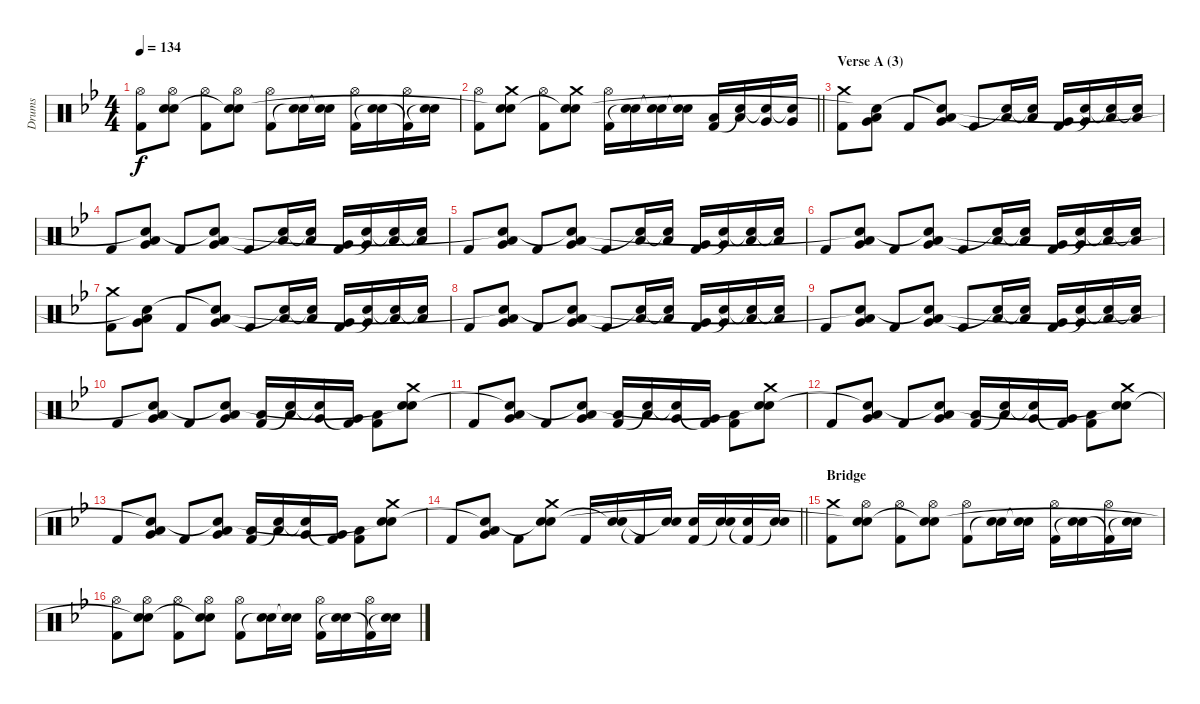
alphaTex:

\track ("Drums" "Drums") {instrument percussion}
\staff {score}
\articulation defaults
\ts (4 4)
\tempo 134
\clef neutral
\ks gminor
("Hi-Hat (open)" "Kick (hit) 2").8{dy f} ("Hi-Hat (open)" "Electric Snare (hit)" "Snare (hit)"{t}).8 ("Hi-Hat (open)" "Kick (hit) 2").8 ("Hi-Hat (open)" "Electric Snare (hit)" "Snare (hit)"{t}).8 ("Hi-Hat (open)" "Kick (hit) 2").8 ("Electric Snare (hit)" "Snare (hit)"{t}).16 ("Electric Snare (hit)" "Snare (hit)"{t}).16 ("Hi-Hat (open)" "Kick (hit) 2").16 ("Electric Snare (hit)" "Snare (hit)"{t}).16 ("Hi-Hat (open)" "Kick (hit) 2"{t}).16 ("Electric Snare (hit)" "Snare (hit)"{t}).16 |
\barLineRight lightlight
("Hi-Hat (open)" "Kick (hit) 2").8 ("Crash medium (hit)" "Electric Snare (hit)" "Snare (hit)"{t}).8 ("Hi-Hat (open)" "Kick (hit) 2").8 ("Crash medium (hit)" "Electric Snare (hit)" "Snare (hit)"{t}).8 ("Hi-Hat (open)" "Kick (hit) 2").16 ("Electric Snare (hit)" "Snare (hit)"{t}).16 ("Electric Snare (hit)" "Snare (hit)"{t}).16 ("Electric Snare (hit)" "Snare (hit)"{t}).16 ("Low Tom (hit)" "Kick (hit) 2").16 ("Low Tom (hit)" "Snare (hit)"{t}).16 ("Very Low Tom (hit)" "Snare (hit)"{t}).16 ("Very Low Tom (hit)" "Snare (hit)"{t}).16 |
\section ("" "Verse A (3)")
("Crash medium (hit)" "Kick (hit) 2").8 ("Very Low Tom (hit)" "Low Floor Tom (hit)" "Snare (hit)"{t}).8 "Kick (hit) 2".8 ("Very Low Tom (hit)" "Low Floor Tom (hit)" "Snare (hit)"{t}).8 "Kick (hit) 2".8 ("Low Tom (hit)" "Snare (hit)"{t}).16 ("Low Tom (hit)" "Snare (hit)"{t}).16 ("Very Low Tom (hit)" "Kick (hit) 2").16 ("Very Low Tom (hit)" "Snare (hit)"{t}).16 ("Low Floor Tom (hit)" "Snare (hit)"{t}).16 ("Low Floor Tom (hit)" "Snare (hit)"{t}).16 |
"Kick (hit) 2".8 ("Very Low Tom (hit)" "Low Floor Tom (hit)" "Snare (hit)"{t}).8 "Kick (hit) 2".8 ("Very Low Tom (hit)" "Low Floor Tom (hit)" "Snare (hit)"{t}).8 "Kick (hit) 2".8 ("Low Tom (hit)" "Snare (hit)"{t}).16 ("Low Tom (hit)" "Snare (hit)"{t}).16 ("Very Low Tom (hit)" "Kick (hit) 2").16 ("Very Low Tom (hit)" "Snare (hit)"{t}).16 ("Low Floor Tom (hit)" "Snare (hit)"{t}).16 ("Low Floor Tom (hit)" "Snare (hit)"{t}).16 |
"Kick (hit) 2".8 ("Very Low Tom (hit)" "Low Floor Tom (hit)" "Snare (hit)"{t}).8 "Kick (hit) 2".8 ("Very Low Tom (hit)" "Low Floor Tom (hit)" "Snare (hit)"{t}).8 "Kick (hit) 2".8 ("Low Tom (hit)" "Snare (hit)"{t}).16 ("Low Tom (hit)" "Snare (hit)"{t}).16 ("Very Low Tom (hit)" "Kick (hit) 2").16 ("Very Low Tom (hit)" "Snare (hit)"{t}).16 ("Low Floor Tom (hit)" "Snare (hit)"{t}).16 ("Low Floor Tom (hit)" "Snare (hit)"{t}).16 |
"Kick (hit) 2".8 ("Very Low Tom (hit)" "Low Floor Tom (hit)" "Snare (hit)"{t}).8 "Kick (hit) 2".8 ("Very Low Tom (hit)" "Low Floor Tom (hit)" "Snare (hit)"{t}).8 "Kick (hit) 2".8 ("Low Tom (hit)" "Snare (hit)"{t}).16 ("Low Tom (hit)" "Snare (hit)"{t}).16 ("Very Low Tom (hit)" "Kick (hit) 2").16 ("Very Low Tom (hit)" "Snare (hit)"{t}).16 ("Low Floor Tom (hit)" "Snare (hit)"{t}).16 ("Low Floor Tom (hit)" "Snare (hit)"{t}).16 |
("Crash medium (hit)" "Kick (hit) 2").8 ("Very Low Tom (hit)" "Low Floor Tom (hit)" "Snare (hit)"{t}).8 "Kick (hit) 2".8 ("Very Low Tom (hit)" "Low Floor Tom (hit)" "Snare (hit)"{t}).8 "Kick (hit) 2".8 ("Low Tom (hit)" "Snare (hit)"{t}).16 ("Low Tom (hit)" "Snare (hit)"{t}).16 ("Very Low Tom (hit)" "Kick (hit) 2").16 ("Very Low Tom (hit)" "Snare (hit)"{t}).16 ("Low Floor Tom (hit)" "Snare (hit)"{t}).16 ("Low Floor Tom (hit)" "Snare (hit)"{t}).16 |
"Kick (hit) 2".8 ("Very Low Tom (hit)" "Low Floor Tom (hit)" "Snare (hit)"{t}).8 "Kick (hit) 2".8 ("Very Low Tom (hit)" "Low Floor Tom (hit)" "Snare (hit)"{t}).8 "Kick (hit) 2".8 ("Low Tom (hit)" "Snare (hit)"{t}).16 ("Low Tom (hit)" "Snare (hit)"{t}).16 ("Very Low Tom (hit)" "Kick (hit) 2").16 ("Very Low Tom (hit)" "Snare (hit)"{t}).16 ("Low Floor Tom (hit)" "Snare (hit)"{t}).16 ("Low Floor Tom (hit)" "Snare (hit)"{t}).16 |
"Kick (hit) 2".8 ("Very Low Tom (hit)" "Low Floor Tom (hit)" "Snare (hit)"{t}).8 "Kick (hit) 2".8 ("Very Low Tom (hit)" "Low Floor Tom (hit)" "Snare (hit)"{t}).8 "Kick (hit) 2".8 ("Low Tom (hit)" "Snare (hit)"{t}).16 ("Low Tom (hit)" "Snare (hit)"{t}).16 ("Very Low Tom (hit)" "Kick (hit) 2").16 ("Very Low Tom (hit)" "Snare (hit)"{t}).16 ("Low Floor Tom (hit)" "Snare (hit)"{t}).16 ("Low Floor Tom (hit)" "Snare (hit)"{t}).16 |
"Kick (hit) 2".8 ("Very Low Tom (hit)" "Low Floor Tom (hit)" "Snare (hit)"{t}).8 "Kick (hit) 2".8 ("Very Low Tom (hit)" "Low Floor Tom (hit)" "Snare (hit)"{t}).8 ("Low Tom (hit)" "Kick (hit) 2").16 ("Low Tom (hit)" "Snare (hit)"{t}).16 ("Very Low Tom (hit)" "Snare (hit)"{t}).16 ("Very Low Tom (hit)" "Kick (hit) 2"{t}).16 ("Low Floor Tom (hit)" "Kick (hit) 2").8 ("Crash medium (hit)" "Electric Snare (hit)" "Snare (hit)"{t}).8 |
"Kick (hit) 2".8 ("Very Low Tom (hit)" "Low Floor Tom (hit)" "Snare (hit)"{t}).8 "Kick (hit) 2".8 ("Very Low Tom (hit)" "Low Floor Tom (hit)" "Snare (hit)"{t}).8 ("Low Tom (hit)" "Kick (hit) 2").16 ("Low Tom (hit)" "Snare (hit)"{t}).16 ("Very Low Tom (hit)" "Snare (hit)"{t}).16 ("Very Low Tom (hit)" "Kick (hit) 2"{t}).16 ("Low Floor Tom (hit)" "Kick (hit) 2").8 ("Crash medium (hit)" "Electric Snare (hit)" "Snare (hit)"{t}).8 |
"Kick (hit) 2".8 ("Very Low Tom (hit)" "Low Floor Tom (hit)" "Snare (hit)"{t}).8 "Kick (hit) 2".8 ("Very Low Tom (hit)" "Low Floor Tom (hit)" "Snare (hit)"{t}).8 ("Low Tom (hit)" "Kick (hit) 2").16 ("Low Tom (hit)" "Snare (hit)"{t}).16 ("Very Low Tom (hit)" "Snare (hit)"{t}).16 ("Very Low Tom (hit)" "Kick (hit) 2"{t}).16 ("Low Floor Tom (hit)" "Kick (hit) 2").8 ("Crash medium (hit)" "Electric Snare (hit)" "Snare (hit)"{t}).8 |
"Kick (hit) 2".8 ("Very Low Tom (hit)" "Low Floor Tom (hit)" "Snare (hit)"{t}).8 "Kick (hit) 2".8 ("Very Low Tom (hit)" "Low Floor Tom (hit)" "Snare (hit)"{t}).8 ("Low Tom (hit)" "Kick (hit) 2").16 ("Low Tom (hit)" "Snare (hit)"{t}).16 ("Very Low Tom (hit)" "Snare (hit)"{t}).16 ("Very Low Tom (hit)" "Kick (hit) 2"{t}).16 ("Low Floor Tom (hit)" "Kick (hit) 2").8 ("Crash medium (hit)" "Electric Snare (hit)" "Snare (hit)"{t}).8 |
\barLineRight lightlight "Kick (hit) 2".8
("Very Low Tom (hit)" "Low Floor Tom (hit)" "Snare (hit)"{t}).8 "Kick (hit) 2".8 ("Crash medium (hit)" "Electric Snare (hit)" "Snare (hit)"{t}).8 "Kick (hit) 2".16 ("Electric Snare (hit)" "Snare (hit)"{t}).16 "Kick (hit) 2"{t}.16 ("Electric Snare (hit)" "Snare (hit)"{t}).16 ("Electric Snare (hit)" "Kick (hit) 2").16 ("Electric Snare (hit)" "Snare (hit)"{t}).16 ("Electric Snare (hit)" "Kick (hit) 2"{t}).16 ("Electric Snare (hit)" "Snare (hit)"{t}).16 |
\section ("" "Bridge")
("Crash medium (hit)" "Kick (hit) 2").8 ("Hi-Hat (open)" "Electric Snare (hit)" "Snare (hit)"{t}).8 ("Hi-Hat (open)" "Kick (hit) 2").8 ("Hi-Hat (open)" "Electric Snare (hit)" "Snare (hit)"{t}).8 ("Hi-Hat (open)" "Kick (hit) 2").8 ("Electric Snare (hit)" "Snare (hit)"{t}).16 ("Electric Snare (hit)" "Snare (hit)"{t}).16 ("Hi-Hat (open)" "Kick (hit) 2").16 ("Electric Snare (hit)" "Snare (hit)"{t}).16 ("Hi-Hat (open)" "Kick (hit) 2"{t}).16 ("Electric Snare (hit)" "Snare (hit)"{t}).16 |
("Hi-Hat (open)" "Kick (hit) 2").8 ("Hi-Hat (open)" "Electric Snare (hit)" "Snare (hit)"{t}).8 ("Hi-Hat (open)" "Kick (hit) 2").8 ("Hi-Hat (open)" "Electric Snare (hit)" "Snare (hit)"{t}).8 ("Hi-Hat (open)" "Kick (hit) 2").8 ("Electric Snare (hit)" "Snare (hit)"{t}).16 ("Electric Snare (hit)" "Snare (hit)"{t}).16 ("Hi-Hat (open)" "Kick (hit) 2").16 ("Electric Snare (hit)" "Snare (hit)"{t}).16 ("Hi-Hat (open)" "Kick (hit) 2"{t}).16 ("Electric Snare (hit)" "Snare (hit)"{t}).16
